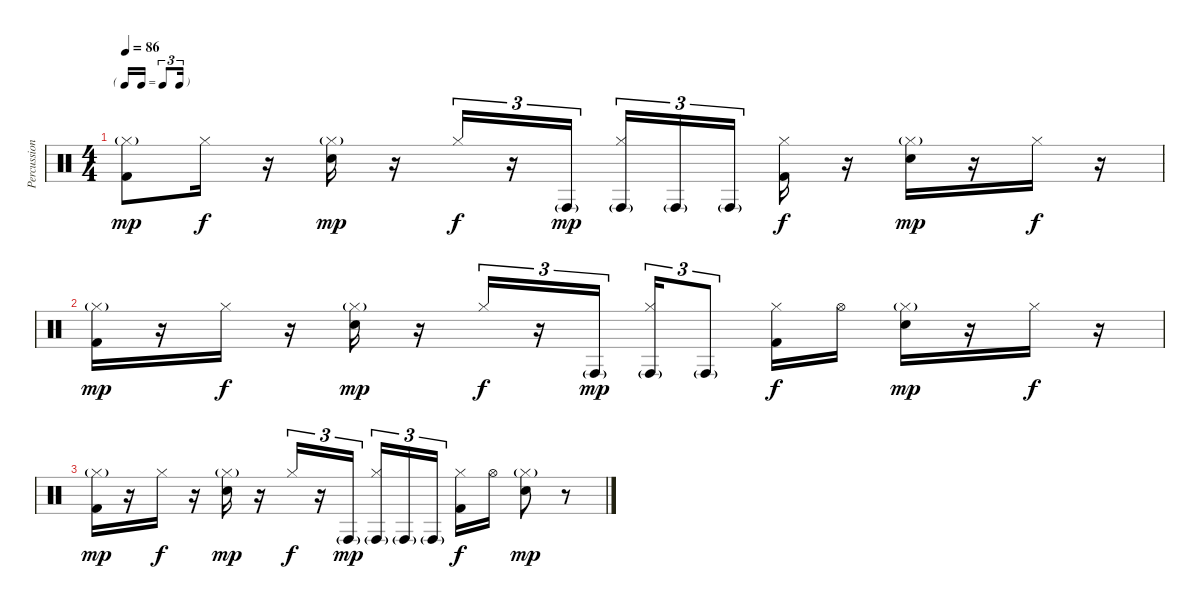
\track ("Percussion" "Percussion") {instrument percussion}
\staff {score}
\articulation defaults
\ts (4 4)
\tf triplet16th
\tempo 86
\clef neutral
\ks c
("Hi-Hat (closed)"{g} "Kick (hit) 2").8{dy mp} "Hi-Hat (closed)".16{dy f} r.16 ("Hi-Hat (closed)"{g} "Electric Snare (hit)").16{dy mp} r.16 "Hi-Hat (closed)".16{tu (3 2) dy f} r.16{tu (3 2)} "Conga high (hit)"{g}.16{tu (3 2) dy mp} ("Conga high (hit)"{g} "Hi-Hat (closed)").16{tu (3 2)} "Conga high (hit)"{g}.16{tu (3 2)} "Conga high (hit)"{g}.16{tu (3 2) beam splitsecondary} ("Hi-Hat (closed)" "Kick (hit) 2").16{dy f} r.16 ("Hi-Hat (closed)"{g} "Electric Snare (hit)").16{dy mp} r.16 "Hi-Hat (closed)".16{dy f} r.16 |
("Hi-Hat (closed)"{g} "Kick (hit) 2").16{dy mp} r.16 "Hi-Hat (closed)".16{dy f} r.16 ("Hi-Hat (closed)"{g} "Electric Snare (hit)").16{dy mp} r.16 "Hi-Hat (closed)".16{tu (3 2) dy f} r.16{tu (3 2)} "Conga high (hit)"{g}.16{tu (3 2) dy mp} ("Conga high (hit)"{g} "Hi-Hat (closed)").16{tu (3 2)} "Conga high (hit)"{g}.8{tu (3 2)} ("Hi-Hat (closed)" "Kick (hit) 2").16{dy f} "Hi-Hat (open)".16 ("Hi-Hat (closed)"{g} "Electric Snare (hit)").16{dy mp} r.16 "Hi-Hat (closed)".16{dy f} r.16 |
("Hi-Hat (closed)"{g} "Kick (hit) 2").16{dy mp} r.16 "Hi-Hat (closed)".16{dy f} r.16 ("Hi-Hat (closed)"{g} "Electric Snare (hit)").16{dy mp} r.16 "Hi-Hat (closed)".16{tu (3 2) dy f} r.16{tu (3 2)} "Conga high (hit)"{g}.16{tu (3 2) dy mp} ("Conga high (hit)"{g} "Hi-Hat (closed)").16{tu (3 2)} "Conga high (hit)"{g}.16{tu (3 2)} "Conga high (hit)"{g}.16{tu (3 2) beam splitsecondary} ("Hi-Hat (closed)" "Kick (hit) 2").16{dy f} "Hi-Hat (open)".16 ("Hi-Hat (closed)"{g} "Electric Snare (hit)").8{dy mp} r.8
